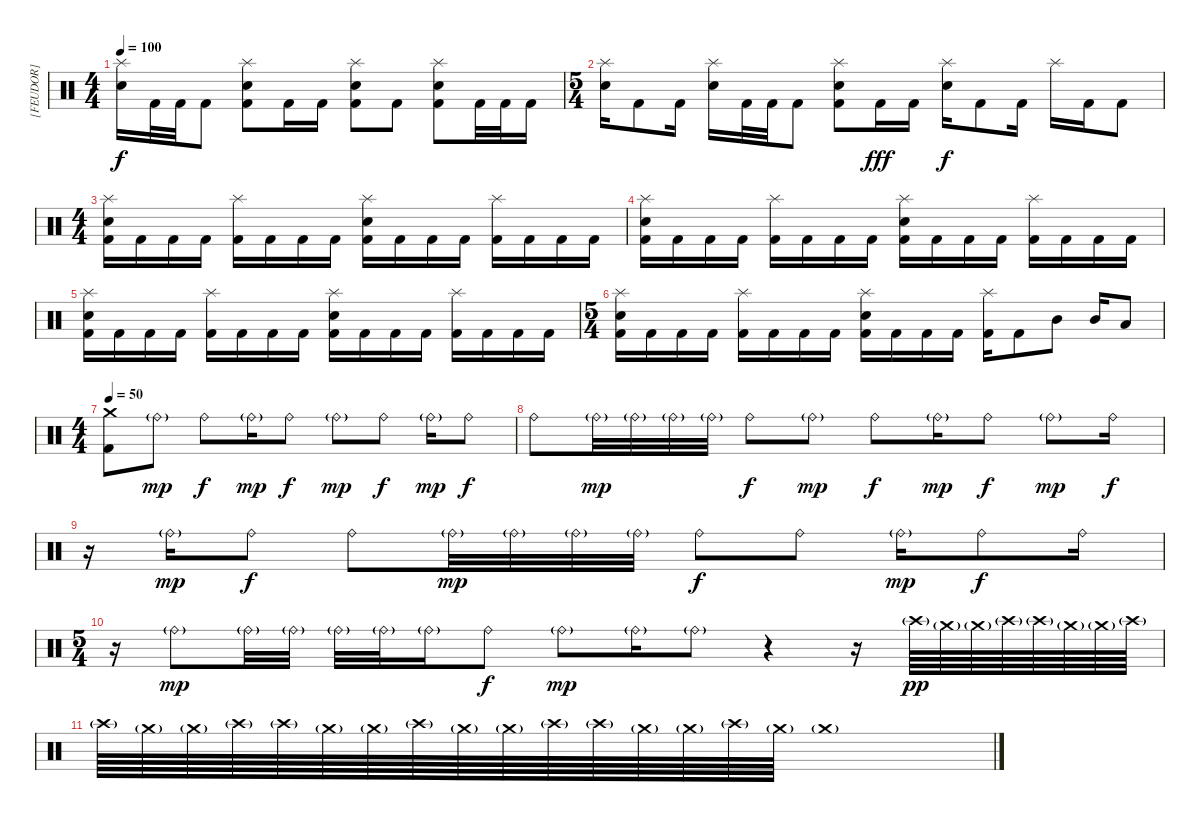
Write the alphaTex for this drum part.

\track ("[FEUDOR]" "[FEUDOR]") {instrument percussion}
\staff {score}
\articulation defaults
\ts (4 4)
\tempo 100
\clef neutral
\ks c
("Splash (hit)" "Electric Snare (hit)").16{dy f} "Kick (hit) 2".32 "Kick (hit) 2".32 "Kick (hit) 2".8 ("Splash (hit)" "Electric Snare (hit)" "Kick (hit) 2").8 "Kick (hit) 2".16 "Kick (hit) 2".16 ("Splash (hit)" "Electric Snare (hit)" "Kick (hit) 2").8 "Kick (hit) 2".8 ("Splash (hit)" "Electric Snare (hit)" "Kick (hit) 2").8 "Kick (hit) 2".32 "Kick (hit) 2".32 "Kick (hit) 2".16 |
\ts (5 4)
("Splash (hit)" "Electric Snare (hit)").16 "Kick (hit) 2".8 "Kick (hit) 2".16 ("Splash (hit)" "Electric Snare (hit)").16 "Kick (hit) 2".32 "Kick (hit) 2".32 "Kick (hit) 2".8 ("Splash (hit)" "Electric Snare (hit)" "Kick (hit) 2").8 "Kick (hit) 2".16{dy fff} "Kick (hit) 2".16 ("Splash (hit)" "Electric Snare (hit)").16{dy f} "Kick (hit) 2".8 "Kick (hit) 2".16 "Splash (hit)".16 "Kick (hit) 2".16 "Kick (hit) 2".8 |
\ts (4 4)
("Splash (hit)" "Electric Snare (hit)" "Kick (hit) 2").16 "Kick (hit) 2".16 "Kick (hit) 2".16 "Kick (hit) 2".16 ("Splash (hit)" "Kick (hit) 2").16 "Kick (hit) 2".16 "Kick (hit) 2".16 "Kick (hit) 2".16 ("Splash (hit)" "Electric Snare (hit)" "Kick (hit) 2").16 "Kick (hit) 2".16 "Kick (hit) 2".16 "Kick (hit) 2".16 ("Splash (hit)" "Kick (hit) 2").16 "Kick (hit) 2".16 "Kick (hit) 2".16 "Kick (hit) 2".16 |
("Splash (hit)" "Electric Snare (hit)" "Kick (hit) 2").16 "Kick (hit) 2".16 "Kick (hit) 2".16 "Kick (hit) 2".16 ("Splash (hit)" "Kick (hit) 2").16 "Kick (hit) 2".16 "Kick (hit) 2".16 "Kick (hit) 2".16 ("Splash (hit)" "Electric Snare (hit)" "Kick (hit) 2").16 "Kick (hit) 2".16 "Kick (hit) 2".16 "Kick (hit) 2".16 ("Splash (hit)" "Kick (hit) 2").16 "Kick (hit) 2".16 "Kick (hit) 2".16 "Kick (hit) 2".16 |
("Splash (hit)" "Electric Snare (hit)" "Kick (hit) 2").16 "Kick (hit) 2".16 "Kick (hit) 2".16 "Kick (hit) 2".16 ("Splash (hit)" "Kick (hit) 2").16 "Kick (hit) 2".16 "Kick (hit) 2".16 "Kick (hit) 2".16 ("Splash (hit)" "Electric Snare (hit)" "Kick (hit) 2").16 "Kick (hit) 2".16 "Kick (hit) 2".16 "Kick (hit) 2".16 ("Splash (hit)" "Kick (hit) 2").16 "Kick (hit) 2".16 "Kick (hit) 2".16 "Kick (hit) 2".16 |
\ts (5 4)
("Splash (hit)" "Electric Snare (hit)" "Kick (hit) 2").16 "Kick (hit) 2".16 "Kick (hit) 2".16 "Kick (hit) 2".16 ("Splash (hit)" "Kick (hit) 2").16 "Kick (hit) 2".16 "Kick (hit) 2".16 "Kick (hit) 2".16 ("Splash (hit)" "Electric Snare (hit)" "Kick (hit) 2").16 "Kick (hit) 2".16 "Kick (hit) 2".16 "Kick (hit) 2".16 ("Splash (hit)" "Kick (hit) 2").16 "Kick (hit) 2".8 "Mid Tom (hit)".8 "Mid Tom (hit)".16 "Low Tom (hit)".8 |
\ts (4 4)
\tempo 50
("Crash medium (hit)" "Kick (hit) 2").8 "Ride (bell)"{g}.8{dy mp} "Ride (bell)".8{dy f} "Ride (bell)"{g}.16{dy mp} "Ride (bell)".8{dy f} "Ride (bell)"{g}.8{dy mp} "Ride (bell)".8{dy f} "Ride (bell)"{g}.16{dy mp} "Ride (bell)".8{dy f} |
"Ride (bell)".8 "Ride (bell)"{g}.32{dy mp} "Ride (bell)"{g}.32 "Ride (bell)"{g}.32 "Ride (bell)"{g}.32 "Ride (bell)".8{dy f} "Ride (bell)"{g}.8{dy mp} "Ride (bell)".8{dy f} "Ride (bell)"{g}.16{dy mp} "Ride (bell)".8{dy f} "Ride (bell)"{g}.8{dy mp} "Ride (bell)".16{dy f} |
r.16 "Ride (bell)"{g}.16{dy mp} "Ride (bell)".8{dy f} "Ride (bell)".8 "Ride (bell)"{g}.32{dy mp} "Ride (bell)"{g}.32 "Ride (bell)"{g}.32 "Ride (bell)"{g}.32 "Ride (bell)".8{dy f} "Ride (bell)".8 "Ride (bell)"{g}.16{dy mp} "Ride (bell)".8{dy f} "Ride (bell)".16 |
\ts (5 4)
r.16 "Ride (bell)"{g}.8{dy mp} "Ride (bell)"{g}.32 "Ride (bell)"{g}.32 "Ride (bell)"{g}.32 "Ride (bell)"{g}.32 "Ride (bell)"{g}.16 "Ride (bell)".8{dy f} "Ride (bell)"{g}.8{dy mp} "Ride (bell)"{g}.16 "Ride (bell)"{g}.8 r.4 r.16 "Crash high (hit)"{g}.64{dy pp} "Crash medium (hit)"{g}.64 "Crash medium (hit)"{g}.64 "Crash high (hit)"{g}.64 "Crash high (hit)"{g}.64 "Crash medium (hit)"{g}.64 "Crash medium (hit)"{g}.64 "Crash high (hit)"{g}.64 |
"Crash high (hit)"{g}.64 "Crash medium (hit)"{g}.64 "Crash medium (hit)"{g}.64 "Crash high (hit)"{g}.64 "Crash high (hit)"{g}.64 "Crash medium (hit)"{g}.64 "Crash medium (hit)"{g}.64 "Crash high (hit)"{g}.64 "Crash medium (hit)"{g}.64 "Crash medium (hit)"{g}.64 "Crash high (hit)"{g}.64 "Crash high (hit)"{g}.64 "Crash medium (hit)"{g}.64 "Crash medium (hit)"{g}.64 "Crash high (hit)"{g}.64 "Crash medium (hit)"{g}.64 "Crash medium (hit)"{g}.1
